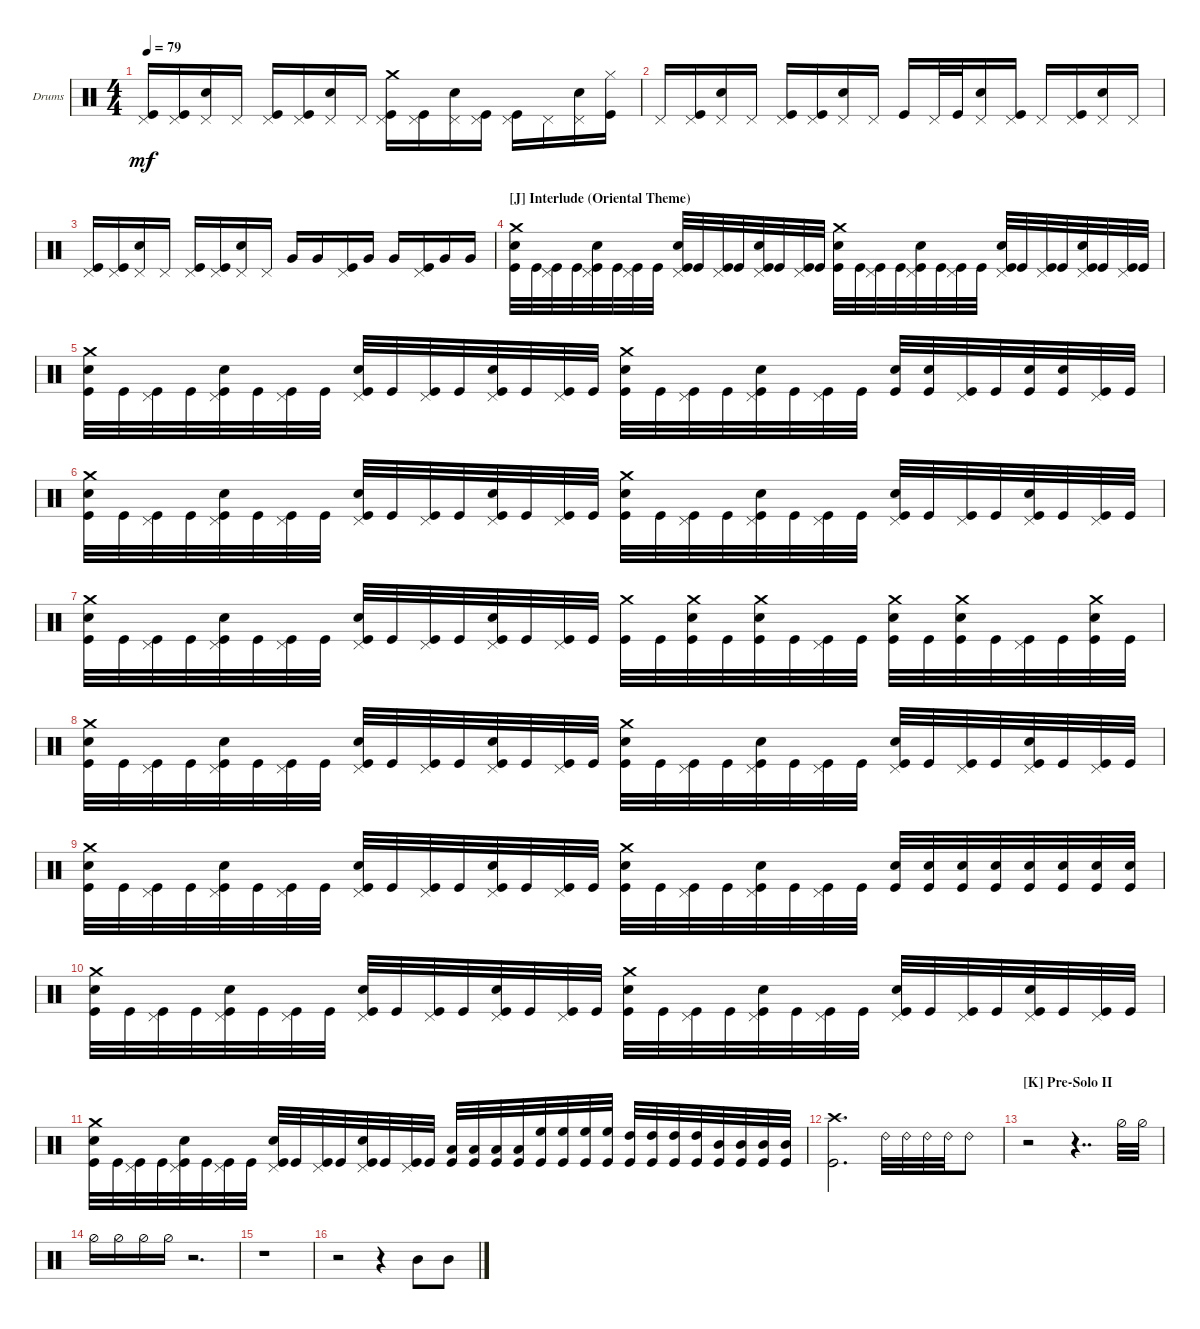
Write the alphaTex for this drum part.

\defaultSystemsLayout 4
\bracketExtendMode groupsimilarinstruments
\firstSystemTrackNameOrientation horizontal
\otherSystemsTrackNameOrientation horizontal
\track ("Drums" "Drums") {instrument percussion}
\staff {score}
\articulation defaults
\ts (4 4)
\tempo 79
\clef neutral
\ks c
("Kick (hit)" "Pedal Hi-Hat (hit)").16{dy mf} ("Pedal Hi-Hat (hit)" "Kick (hit)").16{beam merge} ("Pedal Hi-Hat (hit)" "Snare (hit) 2").16 "Pedal Hi-Hat (hit)".16 ("Pedal Hi-Hat (hit)" "Kick (hit)").16 ("Pedal Hi-Hat (hit)" "Kick (hit)").16{beam merge} ("Pedal Hi-Hat (hit)" "Snare (hit) 2").16 "Pedal Hi-Hat (hit)".16 ("Kick (hit)" "Pedal Hi-Hat (hit)" "Crash medium (hit)").16 ("Pedal Hi-Hat (hit)" "Kick (hit)").16{beam merge} ("Pedal Hi-Hat (hit)" "Snare (hit) 2").16 ("Pedal Hi-Hat (hit)" "Kick (hit)").16 ("Pedal Hi-Hat (hit)" "Kick (hit)").16 "Pedal Hi-Hat (hit)".16{beam merge} ("Pedal Hi-Hat (hit)" "Snare (hit) 2").16 ("Kick (hit)" "Hi-Hat (closed)").16 |
"Pedal Hi-Hat (hit)".16 ("Pedal Hi-Hat (hit)" "Kick (hit)").16{beam merge} ("Pedal Hi-Hat (hit)" "Snare (hit) 2").16 "Pedal Hi-Hat (hit)".16 ("Pedal Hi-Hat (hit)" "Kick (hit)").16 ("Pedal Hi-Hat (hit)" "Kick (hit)").16{beam merge} ("Pedal Hi-Hat (hit)" "Snare (hit) 2").16 "Pedal Hi-Hat (hit)".16 "Kick (hit)".16 "Pedal Hi-Hat (hit)".32 "Kick (hit)".32{beam merge} ("Pedal Hi-Hat (hit)" "Snare (hit) 2").16 ("Pedal Hi-Hat (hit)" "Kick (hit)").16 "Pedal Hi-Hat (hit)".16 ("Pedal Hi-Hat (hit)" "Kick (hit)").16{beam merge} ("Pedal Hi-Hat (hit)" "Snare (hit) 2").16 "Pedal Hi-Hat (hit)".16 |
("Kick (hit)" "Pedal Hi-Hat (hit)").16 ("Pedal Hi-Hat (hit)" "Kick (hit)").16{beam merge} ("Pedal Hi-Hat (hit)" "Snare (hit) 2").16 "Pedal Hi-Hat (hit)".16 ("Pedal Hi-Hat (hit)" "Kick (hit)").16 ("Pedal Hi-Hat (hit)" "Kick (hit)").16{beam merge} ("Pedal Hi-Hat (hit)" "Snare (hit) 2").16 "Pedal Hi-Hat (hit)".16 "Very Low Tom (hit)".16 "Very Low Tom (hit)".16{beam merge} ("Pedal Hi-Hat (hit)" "Kick (hit)").16 "Very Low Tom (hit)".16 "Very Low Tom (hit)".16 ("Pedal Hi-Hat (hit)" "Kick (hit)").16{beam merge} "Very Low Tom (hit)".16 "Very Low Tom (hit)".16 |
\section ("J" "Interlude (Oriental Theme)")
("Kick (hit)" "Crash medium (hit)" "Snare (hit) 2").32 "Kick (hit)".32{beam merge} ("Pedal Hi-Hat (hit)" "Kick (hit)").32 "Kick (hit)".32{beam merge} ("Pedal Hi-Hat (hit)" "Kick (hit)" "Snare (hit) 2").32 "Kick (hit)".32{beam merge} ("Pedal Hi-Hat (hit)" "Kick (hit)").32 "Kick (hit)".32 ("Kick (hit)" "Snare (hit) 2" "Pedal Hi-Hat (hit)").32 "Kick (hit)".32{beam merge} ("Pedal Hi-Hat (hit)" "Kick (hit)").32 "Kick (hit)".32{beam merge} ("Pedal Hi-Hat (hit)" "Kick (hit)" "Snare (hit) 2").32 "Kick (hit)".32{beam merge} ("Pedal Hi-Hat (hit)" "Kick (hit)").32 "Kick (hit)".32 ("Kick (hit)" "Crash medium (hit)" "Snare (hit) 2").32 "Kick (hit)".32{beam merge} ("Pedal Hi-Hat (hit)" "Kick (hit)").32 "Kick (hit)".32{beam merge} ("Pedal Hi-Hat (hit)" "Kick (hit)" "Snare (hit) 2").32 "Kick (hit)".32{beam merge} ("Pedal Hi-Hat (hit)" "Kick (hit)").32 "Kick (hit)".32 ("Kick (hit)" "Snare (hit) 2" "Pedal Hi-Hat (hit)").32 "Kick (hit)".32{beam merge} ("Pedal Hi-Hat (hit)" "Kick (hit)").32 "Kick (hit)".32{beam merge} ("Pedal Hi-Hat (hit)" "Kick (hit)" "Snare (hit) 2").32 "Kick (hit)".32{beam merge} ("Pedal Hi-Hat (hit)" "Kick (hit)").32 "Kick (hit)".32 |
("Kick (hit)" "Crash medium (hit)" "Snare (hit) 2").32 "Kick (hit)".32{beam merge} ("Pedal Hi-Hat (hit)" "Kick (hit)").32 "Kick (hit)".32{beam merge} ("Pedal Hi-Hat (hit)" "Kick (hit)" "Snare (hit) 2").32 "Kick (hit)".32{beam merge} ("Pedal Hi-Hat (hit)" "Kick (hit)").32 "Kick (hit)".32 ("Kick (hit)" "Snare (hit) 2" "Pedal Hi-Hat (hit)").32 "Kick (hit)".32{beam merge} ("Pedal Hi-Hat (hit)" "Kick (hit)").32 "Kick (hit)".32{beam merge} ("Pedal Hi-Hat (hit)" "Kick (hit)" "Snare (hit) 2").32 "Kick (hit)".32{beam merge} ("Pedal Hi-Hat (hit)" "Kick (hit)").32 "Kick (hit)".32 ("Kick (hit)" "Snare (hit) 2" "Crash medium (hit)").32 "Kick (hit)".32{beam merge} ("Pedal Hi-Hat (hit)" "Kick (hit)").32 "Kick (hit)".32{beam merge} ("Pedal Hi-Hat (hit)" "Kick (hit)" "Snare (hit) 2").32 "Kick (hit)".32{beam merge} ("Pedal Hi-Hat (hit)" "Kick (hit)").32 "Kick (hit)".32 ("Kick (hit)" "Snare (hit) 2").32 ("Kick (hit)" "Snare (hit) 2").32{beam merge} ("Pedal Hi-Hat (hit)" "Kick (hit)").32 "Kick (hit)".32{beam merge} ("Kick (hit)" "Snare (hit) 2").32 ("Kick (hit)" "Snare (hit) 2").32{beam merge} ("Pedal Hi-Hat (hit)" "Kick (hit)").32 "Kick (hit)".32 |
("Kick (hit)" "Snare (hit) 2" "Crash medium (hit)").32 "Kick (hit)".32{beam merge} ("Pedal Hi-Hat (hit)" "Kick (hit)").32 "Kick (hit)".32{beam merge} ("Pedal Hi-Hat (hit)" "Kick (hit)" "Snare (hit) 2").32{beam merge} "Kick (hit)".32{beam merge} ("Pedal Hi-Hat (hit)" "Kick (hit)").32 "Kick (hit)".32 ("Kick (hit)" "Snare (hit) 2" "Pedal Hi-Hat (hit)").32 "Kick (hit)".32{beam merge} ("Pedal Hi-Hat (hit)" "Kick (hit)").32 "Kick (hit)".32{beam merge} ("Pedal Hi-Hat (hit)" "Kick (hit)" "Snare (hit) 2").32 "Kick (hit)".32{beam merge} ("Pedal Hi-Hat (hit)" "Kick (hit)").32 "Kick (hit)".32 ("Kick (hit)" "Snare (hit) 2" "Crash medium (hit)").32 "Kick (hit)".32{beam merge} ("Pedal Hi-Hat (hit)" "Kick (hit)").32 "Kick (hit)".32{beam merge} ("Pedal Hi-Hat (hit)" "Kick (hit)" "Snare (hit) 2").32{beam merge} "Kick (hit)".32{beam merge} ("Pedal Hi-Hat (hit)" "Kick (hit)").32 "Kick (hit)".32 ("Kick (hit)" "Snare (hit) 2" "Pedal Hi-Hat (hit)").32 "Kick (hit)".32{beam merge} ("Pedal Hi-Hat (hit)" "Kick (hit)").32 "Kick (hit)".32{beam merge} ("Pedal Hi-Hat (hit)" "Kick (hit)" "Snare (hit) 2").32 "Kick (hit)".32{beam merge} ("Pedal Hi-Hat (hit)" "Kick (hit)").32 "Kick (hit)".32 |
("Kick (hit)" "Crash medium (hit)" "Snare (hit) 2").32 "Kick (hit)".32{beam merge} ("Pedal Hi-Hat (hit)" "Kick (hit)").32 "Kick (hit)".32{beam merge} ("Pedal Hi-Hat (hit)" "Kick (hit)" "Snare (hit) 2").32 "Kick (hit)".32{beam merge} ("Pedal Hi-Hat (hit)" "Kick (hit)").32 "Kick (hit)".32 ("Kick (hit)" "Snare (hit) 2" "Pedal Hi-Hat (hit)").32 "Kick (hit)".32{beam merge} ("Pedal Hi-Hat (hit)" "Kick (hit)").32 "Kick (hit)".32{beam merge} ("Pedal Hi-Hat (hit)" "Kick (hit)" "Snare (hit) 2").32 "Kick (hit)".32{beam merge} ("Pedal Hi-Hat (hit)" "Kick (hit)").32 "Kick (hit)".32 ("Kick (hit)" "Crash medium (hit)").32 "Kick (hit)".32{beam merge} ("Kick (hit)" "Snare (hit) 2" "Crash medium (hit)").32 "Kick (hit)".32{beam merge} ("Kick (hit)" "Snare (hit) 2" "Crash medium (hit)").32 "Kick (hit)".32{beam merge} ("Pedal Hi-Hat (hit)" "Kick (hit)").32 "Kick (hit)".32 ("Kick (hit)" "Snare (hit) 2" "Crash medium (hit)").32 "Kick (hit)".32{beam merge} ("Kick (hit)" "Snare (hit) 2" "Crash medium (hit)").32 "Kick (hit)".32{beam merge} ("Pedal Hi-Hat (hit)" "Kick (hit)").32 "Kick (hit)".32{beam merge} ("Kick (hit)" "Snare (hit) 2" "Crash medium (hit)").32 "Kick (hit)".32 |
("Kick (hit)" "Snare (hit) 2" "Crash medium (hit)").32 "Kick (hit)".32{beam merge} ("Pedal Hi-Hat (hit)" "Kick (hit)").32 "Kick (hit)".32{beam merge} ("Pedal Hi-Hat (hit)" "Kick (hit)" "Snare (hit) 2").32{beam merge} "Kick (hit)".32{beam merge} ("Pedal Hi-Hat (hit)" "Kick (hit)").32 "Kick (hit)".32 ("Kick (hit)" "Snare (hit) 2" "Pedal Hi-Hat (hit)").32 "Kick (hit)".32{beam merge} ("Pedal Hi-Hat (hit)" "Kick (hit)").32 "Kick (hit)".32{beam merge} ("Pedal Hi-Hat (hit)" "Kick (hit)" "Snare (hit) 2").32 "Kick (hit)".32{beam merge} ("Pedal Hi-Hat (hit)" "Kick (hit)").32 "Kick (hit)".32 ("Kick (hit)" "Snare (hit) 2" "Crash medium (hit)").32 "Kick (hit)".32{beam merge} ("Pedal Hi-Hat (hit)" "Kick (hit)").32 "Kick (hit)".32{beam merge} ("Pedal Hi-Hat (hit)" "Kick (hit)" "Snare (hit) 2").32{beam merge} "Kick (hit)".32{beam merge} ("Pedal Hi-Hat (hit)" "Kick (hit)").32 "Kick (hit)".32 ("Kick (hit)" "Snare (hit) 2" "Pedal Hi-Hat (hit)").32 "Kick (hit)".32{beam merge} ("Pedal Hi-Hat (hit)" "Kick (hit)").32 "Kick (hit)".32{beam merge} ("Pedal Hi-Hat (hit)" "Kick (hit)" "Snare (hit) 2").32 "Kick (hit)".32{beam merge} ("Pedal Hi-Hat (hit)" "Kick (hit)").32 "Kick (hit)".32 |
("Kick (hit)" "Snare (hit) 2" "Crash medium (hit)").32 "Kick (hit)".32{beam merge} ("Pedal Hi-Hat (hit)" "Kick (hit)").32 "Kick (hit)".32{beam merge} ("Pedal Hi-Hat (hit)" "Kick (hit)" "Snare (hit) 2").32{beam merge} "Kick (hit)".32{beam merge} ("Pedal Hi-Hat (hit)" "Kick (hit)").32 "Kick (hit)".32 ("Kick (hit)" "Snare (hit) 2" "Pedal Hi-Hat (hit)").32 "Kick (hit)".32{beam merge} ("Pedal Hi-Hat (hit)" "Kick (hit)").32 "Kick (hit)".32{beam merge} ("Pedal Hi-Hat (hit)" "Kick (hit)" "Snare (hit) 2").32 "Kick (hit)".32{beam merge} ("Pedal Hi-Hat (hit)" "Kick (hit)").32 "Kick (hit)".32 ("Kick (hit)" "Snare (hit) 2" "Crash medium (hit)").32 "Kick (hit)".32{beam merge} ("Pedal Hi-Hat (hit)" "Kick (hit)").32 "Kick (hit)".32{beam merge} ("Pedal Hi-Hat (hit)" "Kick (hit)" "Snare (hit) 2").32{beam merge} "Kick (hit)".32{beam merge} ("Pedal Hi-Hat (hit)" "Kick (hit)").32 "Kick (hit)".32 ("Kick (hit)" "Snare (hit) 2").32 ("Kick (hit)" "Snare (hit) 2").32{beam merge} ("Kick (hit)" "Snare (hit) 2").32 ("Kick (hit)" "Snare (hit) 2").32{beam merge} ("Kick (hit)" "Snare (hit) 2").32 ("Kick (hit)" "Snare (hit) 2").32{beam merge} ("Kick (hit)" "Snare (hit) 2").32 ("Kick (hit)" "Snare (hit) 2").32 |
("Kick (hit)" "Snare (hit) 2" "Crash medium (hit)").32 "Kick (hit)".32{beam merge} ("Pedal Hi-Hat (hit)" "Kick (hit)").32 "Kick (hit)".32{beam merge} ("Pedal Hi-Hat (hit)" "Kick (hit)" "Snare (hit) 2").32{beam merge} "Kick (hit)".32{beam merge} ("Pedal Hi-Hat (hit)" "Kick (hit)").32 "Kick (hit)".32 ("Kick (hit)" "Snare (hit) 2" "Pedal Hi-Hat (hit)").32 "Kick (hit)".32{beam merge} ("Pedal Hi-Hat (hit)" "Kick (hit)").32 "Kick (hit)".32{beam merge} ("Pedal Hi-Hat (hit)" "Kick (hit)" "Snare (hit) 2").32 "Kick (hit)".32{beam merge} ("Pedal Hi-Hat (hit)" "Kick (hit)").32 "Kick (hit)".32 ("Kick (hit)" "Snare (hit) 2" "Crash medium (hit)").32 "Kick (hit)".32{beam merge} ("Pedal Hi-Hat (hit)" "Kick (hit)").32 "Kick (hit)".32{beam merge} ("Pedal Hi-Hat (hit)" "Kick (hit)" "Snare (hit) 2").32{beam merge} "Kick (hit)".32{beam merge} ("Pedal Hi-Hat (hit)" "Kick (hit)").32 "Kick (hit)".32 ("Kick (hit)" "Snare (hit) 2" "Pedal Hi-Hat (hit)").32 "Kick (hit)".32{beam merge} ("Pedal Hi-Hat (hit)" "Kick (hit)").32 "Kick (hit)".32{beam merge} ("Pedal Hi-Hat (hit)" "Kick (hit)" "Snare (hit) 2").32 "Kick (hit)".32{beam merge} ("Pedal Hi-Hat (hit)" "Kick (hit)").32 "Kick (hit)".32 |
("Kick (hit)" "Snare (hit) 2" "Crash medium (hit)").32 "Kick (hit)".32{beam merge} ("Pedal Hi-Hat (hit)" "Kick (hit)").32 "Kick (hit)".32{beam merge} ("Pedal Hi-Hat (hit)" "Kick (hit)" "Snare (hit) 2").32{beam merge} "Kick (hit)".32{beam merge} ("Pedal Hi-Hat (hit)" "Kick (hit)").32 "Kick (hit)".32 ("Kick (hit)" "Snare (hit) 2" "Pedal Hi-Hat (hit)").32 "Kick (hit)".32{beam merge} ("Pedal Hi-Hat (hit)" "Kick (hit)").32 "Kick (hit)".32{beam merge} ("Pedal Hi-Hat (hit)" "Kick (hit)" "Snare (hit) 2").32 "Kick (hit)".32{beam merge} ("Pedal Hi-Hat (hit)" "Kick (hit)").32 "Kick (hit)".32 ("Kick (hit)" "Low Tom (hit)").32 ("Kick (hit)" "Low Tom (hit)").32{beam merge} ("Kick (hit)" "Low Tom (hit)").32 ("Kick (hit)" "Low Tom (hit)").32{beam merge} ("Kick (hit)" "High Floor Tom (hit)").32{beam merge} ("Kick (hit)" "High Floor Tom (hit)").32{beam merge} ("Kick (hit)" "High Floor Tom (hit)").32 ("Kick (hit)" "High Floor Tom (hit)").32 ("Kick (hit)" "High Tom (hit)").32 ("Kick (hit)" "High Tom (hit)").32{beam merge} ("Kick (hit)" "High Tom (hit)").32 ("Kick (hit)" "High Tom (hit)").32{beam merge} ("Kick (hit)" "Mid Tom (hit)").32 ("Kick (hit)" "Mid Tom (hit)").32{beam merge} ("Kick (hit)" "Mid Tom (hit)").32 ("Kick (hit)" "Mid Tom (hit)").32 |
("Kick (hit)" "Crash high (hit)").2{d} "Ride (bell) 2".32 "Ride (bell) 2".32 "Ride (bell) 2".32 "Ride (bell) 2".32 "Ride (bell) 2".8 |
\section ("K" "Pre-Solo II")
r.2 r.4{dd} "Hi-Hat (half)".32 "Hi-Hat (half)".32 |
"Hi-Hat (half)".16 "Hi-Hat (half)".16 "Hi-Hat (half)".16 "Hi-Hat (half)".16 r.2{d} |
r.1 |
r.2 r.4 "Mid Tom (hit)".8 "Mid Tom (hit)".8
